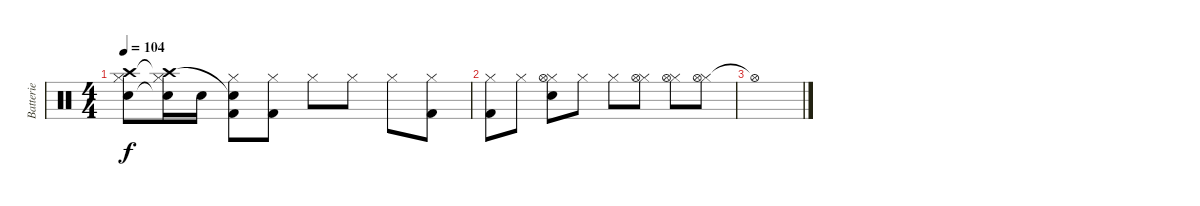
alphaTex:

\track ("Batterie" "Batterie") {instrument percussion}
\staff {score}
\articulation defaults
\ts (4 4)
\tempo 104
\clef neutral
\ks c
("Hi-Hat (closed)" "Crash high (hit)" "Electric Snare (hit)").8{dy f} ("Hi-Hat (closed)" "Crash high (hit)"{t} "Electric Snare (hit)"{t}).16 "Electric Snare (hit)".16 ("Hi-Hat (closed)" "Snare (hit) 2"{t} "Kick (hit) 2").8 ("Hi-Hat (closed)" "Kick (hit) 2").8 "Hi-Hat (closed)".8 "Hi-Hat (closed)".8 "Hi-Hat (closed)".8 ("Hi-Hat (closed)" "Kick (hit) 2").8 |
("Hi-Hat (closed)" "Kick (hit) 2").8 "Hi-Hat (closed)".8 ("Hi-Hat (closed)" "Hi-Hat (open)" "Electric Snare (hit)").8 "Hi-Hat (closed)".8 "Hi-Hat (closed)".8 ("Hi-Hat (closed)" "Hi-Hat (open)").8 ("Hi-Hat (closed)" "Hi-Hat (open)").8 ("Hi-Hat (closed)" "Hi-Hat (open)").8 |
"Hi-Hat (open)"{t}.1
